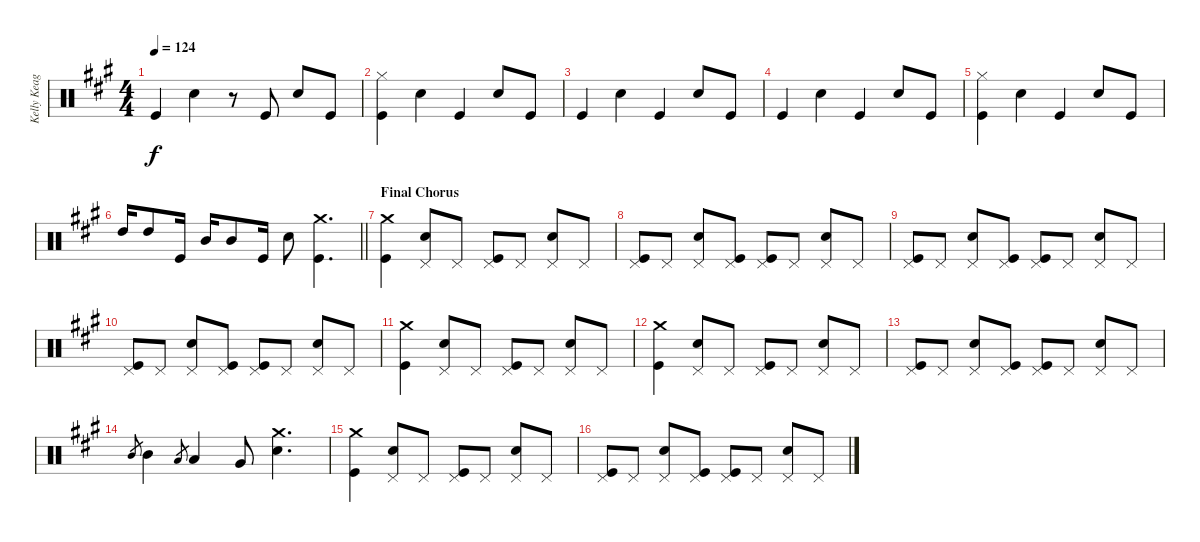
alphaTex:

\track ("Kelly Keagy" "Kelly Keag") {instrument percussion}
\staff {score}
\articulation defaults
\ts (4 4)
\tempo 124
\clef neutral
\ks a "Kick (hit)".4{dy f} "Snare (hit) 2".4
r.8 "Kick (hit)".8 "Snare (hit) 2".8 "Kick (hit)".8 |
("Hi-Hat (closed)" "Kick (hit)").4 "Snare (hit) 2".4 "Kick (hit)".4 "Snare (hit) 2".8 "Kick (hit)".8 |
"Kick (hit)".4 "Snare (hit) 2".4 "Kick (hit)".4 "Snare (hit) 2".8 "Kick (hit)".8 |
"Kick (hit)".4 "Snare (hit) 2".4 "Kick (hit)".4 "Snare (hit) 2".8 "Kick (hit)".8 |
("Hi-Hat (closed)" "Kick (hit)").4 "Snare (hit) 2".4 "Kick (hit)".4 "Snare (hit) 2".8 "Kick (hit)".8 |
\barLineRight lightlight "High Tom (hit)".16 "High Tom (hit)".8 "Kick (hit)".16 "Mid Tom (hit)".16 "Mid Tom (hit)".8 "Kick (hit)".16 "Snare (hit) 2".8
("Crash medium (hit)" "Kick (hit)").4{d} |
\section ("" "Final Chorus")
("Crash medium (hit)" "Kick (hit)").4 ("Pedal Hi-Hat (hit)" "Snare (hit) 2").8 "Pedal Hi-Hat (hit)".8 ("Pedal Hi-Hat (hit)" "Kick (hit)").8 "Pedal Hi-Hat (hit)".8 ("Pedal Hi-Hat (hit)" "Snare (hit) 2").8 "Pedal Hi-Hat (hit)".8 |
("Pedal Hi-Hat (hit)" "Kick (hit)").8 "Pedal Hi-Hat (hit)".8 ("Pedal Hi-Hat (hit)" "Snare (hit) 2").8 ("Pedal Hi-Hat (hit)" "Kick (hit)").8 ("Pedal Hi-Hat (hit)" "Kick (hit)").8 "Pedal Hi-Hat (hit)".8 ("Pedal Hi-Hat (hit)" "Snare (hit) 2").8 "Pedal Hi-Hat (hit)".8 |
("Pedal Hi-Hat (hit)" "Kick (hit)").8 "Pedal Hi-Hat (hit)".8 ("Pedal Hi-Hat (hit)" "Snare (hit) 2").8 ("Pedal Hi-Hat (hit)" "Kick (hit)").8 ("Pedal Hi-Hat (hit)" "Kick (hit)").8 "Pedal Hi-Hat (hit)".8 ("Pedal Hi-Hat (hit)" "Snare (hit) 2").8 "Pedal Hi-Hat (hit)".8 |
("Pedal Hi-Hat (hit)" "Kick (hit)").8 "Pedal Hi-Hat (hit)".8 ("Pedal Hi-Hat (hit)" "Snare (hit) 2").8 ("Pedal Hi-Hat (hit)" "Kick (hit)").8 ("Pedal Hi-Hat (hit)" "Kick (hit)").8 "Pedal Hi-Hat (hit)".8 ("Pedal Hi-Hat (hit)" "Snare (hit) 2").8 "Pedal Hi-Hat (hit)".8 |
("Crash medium (hit)" "Kick (hit)").4 ("Pedal Hi-Hat (hit)" "Snare (hit) 2").8 "Pedal Hi-Hat (hit)".8 ("Pedal Hi-Hat (hit)" "Kick (hit)").8 "Pedal Hi-Hat (hit)".8 ("Pedal Hi-Hat (hit)" "Snare (hit) 2").8 "Pedal Hi-Hat (hit)".8 |
("Crash medium (hit)" "Kick (hit)").4 ("Pedal Hi-Hat (hit)" "Snare (hit) 2").8 "Pedal Hi-Hat (hit)".8 ("Pedal Hi-Hat (hit)" "Kick (hit)").8 "Pedal Hi-Hat (hit)".8 ("Pedal Hi-Hat (hit)" "Snare (hit) 2").8 "Pedal Hi-Hat (hit)".8 |
("Pedal Hi-Hat (hit)" "Kick (hit)").8 "Pedal Hi-Hat (hit)".8 ("Pedal Hi-Hat (hit)" "Snare (hit) 2").8 ("Pedal Hi-Hat (hit)" "Kick (hit)").8 ("Pedal Hi-Hat (hit)" "Kick (hit)").8 "Pedal Hi-Hat (hit)".8 ("Pedal Hi-Hat (hit)" "Snare (hit) 2").8 "Pedal Hi-Hat (hit)".8 |
"Mid Tom (hit)".8{gr} "Mid Tom (hit)".4 "Low Tom (hit)".8{gr} "Low Tom (hit)".4 "Very Low Tom (hit)".8 ("Crash medium (hit)" "Snare (hit) 2").4{d} |
("Crash medium (hit)" "Kick (hit)").4 ("Pedal Hi-Hat (hit)" "Snare (hit) 2").8 "Pedal Hi-Hat (hit)".8 ("Pedal Hi-Hat (hit)" "Kick (hit)").8 "Pedal Hi-Hat (hit)".8 ("Pedal Hi-Hat (hit)" "Snare (hit) 2").8 "Pedal Hi-Hat (hit)".8 |
("Pedal Hi-Hat (hit)" "Kick (hit)").8 "Pedal Hi-Hat (hit)".8 ("Pedal Hi-Hat (hit)" "Snare (hit) 2").8 ("Pedal Hi-Hat (hit)" "Kick (hit)").8 ("Pedal Hi-Hat (hit)" "Kick (hit)").8 "Pedal Hi-Hat (hit)".8 ("Pedal Hi-Hat (hit)" "Snare (hit) 2").8 "Pedal Hi-Hat (hit)".8
